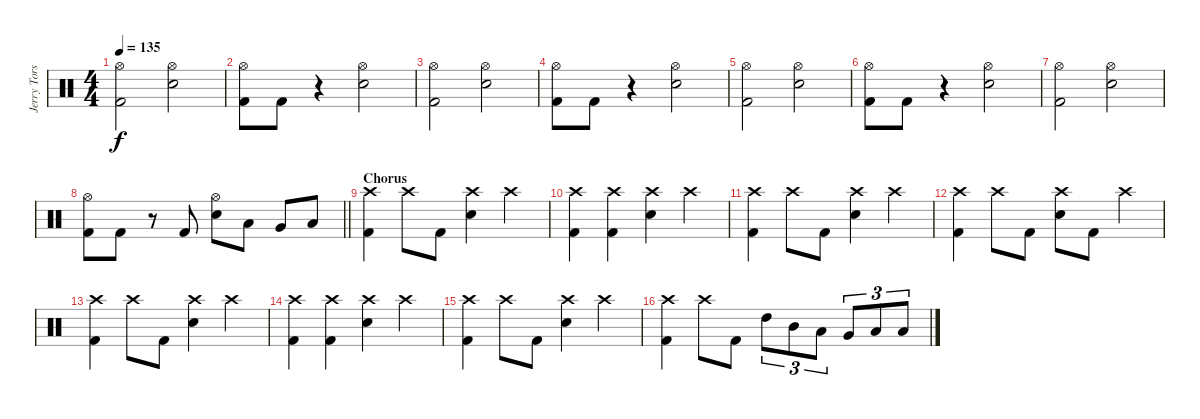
\track ("Jerry Torstensson" "Jerry Tors") {instrument percussion}
\staff {score}
\articulation defaults
\ts (4 4)
\tempo 135
\clef neutral
\ks c
("Hi-Hat (open)" "Kick (hit) 2").2{dy f} ("Hi-Hat (open)" "Snare (hit) 2").2 |
("Hi-Hat (open)" "Kick (hit) 2").8 "Kick (hit) 2".8 r.4 ("Hi-Hat (open)" "Snare (hit) 2").2 |
("Hi-Hat (open)" "Kick (hit) 2").2 ("Hi-Hat (open)" "Snare (hit) 2").2 |
("Hi-Hat (open)" "Kick (hit) 2").8 "Kick (hit) 2".8 r.4 ("Hi-Hat (open)" "Snare (hit) 2").2 |
("Hi-Hat (open)" "Kick (hit) 2").2 ("Hi-Hat (open)" "Snare (hit) 2").2 |
("Hi-Hat (open)" "Kick (hit) 2").8 "Kick (hit) 2".8 r.4 ("Hi-Hat (open)" "Snare (hit) 2").2 |
("Hi-Hat (open)" "Kick (hit) 2").2 ("Hi-Hat (open)" "Snare (hit) 2").2 |
\barLineRight lightlight
("Hi-Hat (open)" "Kick (hit) 2").8 "Kick (hit) 2".8 r.8 "Kick (hit) 2".8 ("Hi-Hat (open)" "Snare (hit) 2").8 "Low Tom (hit)".8 "Very Low Tom (hit)".8 "Low Floor Tom (hit)".8 |
\section ("" "Chorus")
("Crash high (hit)" "Kick (hit) 2").4 "Crash high (hit)".8 "Kick (hit) 2".8 ("Crash high (hit)" "Snare (hit) 2").4 "Crash high (hit)".4 |
("Crash high (hit)" "Kick (hit) 2").4 ("Crash high (hit)" "Kick (hit) 2").4 ("Crash high (hit)" "Snare (hit) 2").4 "Crash high (hit)".4 |
("Crash high (hit)" "Kick (hit) 2").4 "Crash high (hit)".8 "Kick (hit) 2".8 ("Crash high (hit)" "Snare (hit) 2").4 "Crash high (hit)".4 |
("Crash high (hit)" "Kick (hit) 2").4 "Crash high (hit)".8 "Kick (hit) 2".8 ("Crash high (hit)" "Snare (hit) 2").8 "Kick (hit) 2".8 "Crash high (hit)".4 |
("Crash high (hit)" "Kick (hit) 2").4 "Crash high (hit)".8 "Kick (hit) 2".8 ("Crash high (hit)" "Snare (hit) 2").4 "Crash high (hit)".4 |
("Crash high (hit)" "Kick (hit) 2").4 ("Crash high (hit)" "Kick (hit) 2").4 ("Crash high (hit)" "Snare (hit) 2").4 "Crash high (hit)".4 |
("Crash high (hit)" "Kick (hit) 2").4 "Crash high (hit)".8 "Kick (hit) 2".8 ("Crash high (hit)" "Snare (hit) 2").4 "Crash high (hit)".4 |
("Crash high (hit)" "Kick (hit) 2").4 "Crash high (hit)".8 "Kick (hit) 2".8 "High Tom (hit)".8{tu (3 2)} "Mid Tom (hit)".8{tu (3 2)} "Low Tom (hit)".8{tu (3 2)} "Very Low Tom (hit)".8{tu (3 2)} "Low Floor Tom (hit)".8{tu (3 2)} "Low Floor Tom (hit)".8{tu (3 2)}
